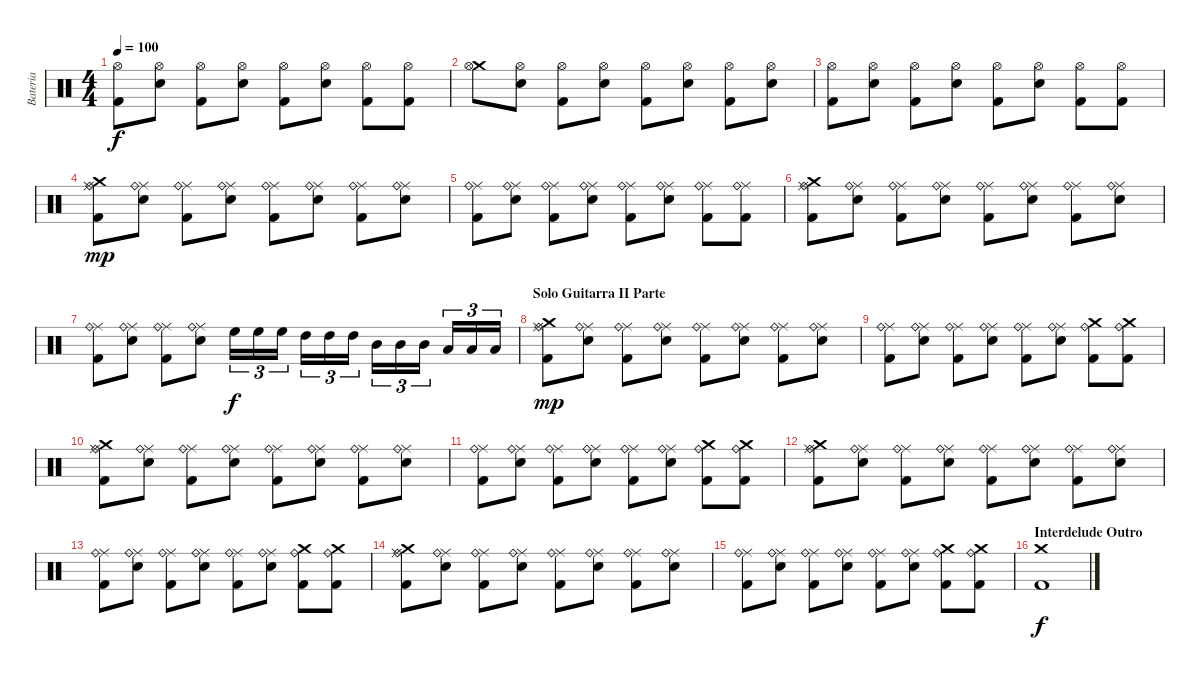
\track ("Bateria" "Bateria") {instrument percussion}
\staff {score}
\articulation defaults
\ts (4 4)
\tempo 100
\clef neutral
\ks c
("Kick (hit) 2" "Hi-Hat (open)").8{dy f} ("Hi-Hat (open)" "Snare (hit) 2").8 ("Hi-Hat (open)" "Kick (hit) 2").8 ("Hi-Hat (open)" "Snare (hit) 2").8 ("Hi-Hat (open)" "Kick (hit) 2").8 ("Hi-Hat (open)" "Snare (hit) 2").8 ("Hi-Hat (open)" "Kick (hit) 2").8 ("Hi-Hat (open)" "Kick (hit) 2").8 |
("Crash medium (hit)" "Hi-Hat (open)").8 ("Hi-Hat (open)" "Snare (hit) 2").8 ("Hi-Hat (open)" "Kick (hit) 2").8 ("Hi-Hat (open)" "Snare (hit) 2").8 ("Hi-Hat (open)" "Kick (hit) 2").8 ("Hi-Hat (open)" "Snare (hit) 2").8 ("Hi-Hat (open)" "Kick (hit) 2").8 ("Hi-Hat (open)" "Snare (hit) 2").8 |
("Kick (hit) 2" "Hi-Hat (open)").8 ("Hi-Hat (open)" "Snare (hit) 2").8 ("Hi-Hat (open)" "Kick (hit) 2").8 ("Hi-Hat (open)" "Snare (hit) 2").8 ("Hi-Hat (open)" "Kick (hit) 2").8 ("Hi-Hat (open)" "Snare (hit) 2").8 ("Hi-Hat (open)" "Kick (hit) 2").8 ("Hi-Hat (open)" "Kick (hit) 2").8 |
("Crash medium (hit)" "Ride (middle)" "Kick (hit) 2" "Ride (bell)").8{dy mp} ("Ride (middle)" "Snare (hit) 2" "Ride (bell)").8 ("Ride (middle)" "Kick (hit) 2" "Ride (bell)").8 ("Ride (middle)" "Snare (hit) 2" "Ride (bell)").8 ("Ride (middle)" "Kick (hit) 2" "Ride (bell)").8 ("Ride (middle)" "Snare (hit) 2" "Ride (bell)").8 ("Ride (middle)" "Kick (hit) 2" "Ride (bell)").8 ("Ride (middle)" "Snare (hit) 2" "Ride (bell)").8 |
("Ride (middle)" "Kick (hit) 2" "Ride (bell)").8 ("Ride (middle)" "Snare (hit) 2" "Ride (bell)").8 ("Ride (middle)" "Kick (hit) 2" "Ride (bell)").8 ("Ride (middle)" "Snare (hit) 2" "Ride (bell)").8 ("Ride (middle)" "Kick (hit) 2" "Ride (bell)").8 ("Ride (middle)" "Snare (hit) 2" "Ride (bell)").8 ("Ride (middle)" "Kick (hit) 2" "Ride (bell)").8 ("Ride (middle)" "Kick (hit) 2" "Ride (bell)").8 |
("Crash medium (hit)" "Ride (middle)" "Kick (hit) 2" "Ride (bell)").8 ("Ride (middle)" "Snare (hit) 2" "Ride (bell)").8 ("Ride (middle)" "Kick (hit) 2" "Ride (bell)").8 ("Ride (middle)" "Snare (hit) 2" "Ride (bell)").8 ("Ride (middle)" "Kick (hit) 2" "Ride (bell)").8 ("Ride (middle)" "Snare (hit) 2" "Ride (bell)").8 ("Ride (middle)" "Kick (hit) 2" "Ride (bell)").8 ("Ride (middle)" "Snare (hit) 2" "Ride (bell)").8 |
("Ride (middle)" "Kick (hit) 2" "Ride (bell)").8 ("Ride (middle)" "Snare (hit) 2" "Ride (bell)").8 ("Ride (middle)" "Kick (hit) 2" "Ride (bell)").8 ("Ride (middle)" "Snare (hit) 2" "Ride (bell)").8 "High Floor Tom (hit)".16{tu (3 2) dy f} "High Floor Tom (hit)".16{tu (3 2)} "High Floor Tom (hit)".16{tu (3 2)} "High Tom (hit)".16{tu (3 2)} "High Tom (hit)".16{tu (3 2)} "High Tom (hit)".16{tu (3 2)} "Mid Tom (hit)".16{tu (3 2)} "Mid Tom (hit)".16{tu (3 2)} "Mid Tom (hit)".16{tu (3 2)} "Low Tom (hit)".16{tu (3 2)} "Low Tom (hit)".16{tu (3 2)} "Low Tom (hit)".16{tu (3 2)} |
\section ("" "Solo Guitarra II Parte")
("Crash medium (hit)" "Ride (middle)" "Kick (hit) 2" "Ride (bell)").8{dy mp} ("Ride (middle)" "Snare (hit) 2" "Ride (bell)").8 ("Ride (middle)" "Kick (hit) 2" "Ride (bell)").8 ("Ride (middle)" "Snare (hit) 2" "Ride (bell)").8 ("Ride (middle)" "Kick (hit) 2" "Ride (bell)").8 ("Ride (middle)" "Snare (hit) 2" "Ride (bell)").8 ("Ride (middle)" "Kick (hit) 2" "Ride (bell)").8 ("Ride (middle)" "Snare (hit) 2" "Ride (bell)").8 |
("Ride (middle)" "Kick (hit) 2" "Ride (bell)").8 ("Ride (middle)" "Snare (hit) 2" "Ride (bell)").8 ("Ride (middle)" "Kick (hit) 2" "Ride (bell)").8 ("Ride (middle)" "Snare (hit) 2" "Ride (bell)").8 ("Ride (middle)" "Kick (hit) 2" "Ride (bell)").8 ("Ride (middle)" "Snare (hit) 2" "Ride (bell)").8 ("Crash medium (hit)" "Kick (hit) 2" "Ride (bell)").8 ("Crash medium (hit)" "Kick (hit) 2" "Ride (bell)").8 |
("Crash medium (hit)" "Ride (middle)" "Kick (hit) 2" "Ride (bell)").8 ("Ride (middle)" "Snare (hit) 2" "Ride (bell)").8 ("Ride (middle)" "Kick (hit) 2" "Ride (bell)").8 ("Ride (middle)" "Snare (hit) 2" "Ride (bell)").8 ("Ride (middle)" "Kick (hit) 2" "Ride (bell)").8 ("Ride (middle)" "Snare (hit) 2" "Ride (bell)").8 ("Ride (middle)" "Kick (hit) 2" "Ride (bell)").8 ("Ride (middle)" "Snare (hit) 2" "Ride (bell)").8 |
("Ride (middle)" "Kick (hit) 2" "Ride (bell)").8 ("Ride (middle)" "Snare (hit) 2" "Ride (bell)").8 ("Ride (middle)" "Kick (hit) 2" "Ride (bell)").8 ("Ride (middle)" "Snare (hit) 2" "Ride (bell)").8 ("Ride (middle)" "Kick (hit) 2" "Ride (bell)").8 ("Ride (middle)" "Snare (hit) 2" "Ride (bell)").8 ("Crash medium (hit)" "Kick (hit) 2" "Ride (bell)").8 ("Crash medium (hit)" "Kick (hit) 2" "Ride (bell)").8 |
("Crash medium (hit)" "Ride (middle)" "Kick (hit) 2" "Ride (bell)").8 ("Ride (middle)" "Snare (hit) 2" "Ride (bell)").8 ("Ride (middle)" "Kick (hit) 2" "Ride (bell)").8 ("Ride (middle)" "Snare (hit) 2" "Ride (bell)").8 ("Ride (middle)" "Kick (hit) 2" "Ride (bell)").8 ("Ride (middle)" "Snare (hit) 2" "Ride (bell)").8 ("Ride (middle)" "Kick (hit) 2" "Ride (bell)").8 ("Ride (middle)" "Snare (hit) 2" "Ride (bell)").8 |
("Ride (middle)" "Kick (hit) 2" "Ride (bell)").8 ("Ride (middle)" "Snare (hit) 2" "Ride (bell)").8 ("Ride (middle)" "Kick (hit) 2" "Ride (bell)").8 ("Ride (middle)" "Snare (hit) 2" "Ride (bell)").8 ("Ride (middle)" "Kick (hit) 2" "Ride (bell)").8 ("Ride (middle)" "Snare (hit) 2" "Ride (bell)").8 ("Crash medium (hit)" "Kick (hit) 2" "Ride (bell)").8 ("Crash medium (hit)" "Kick (hit) 2" "Ride (bell)").8 |
("Crash medium (hit)" "Ride (middle)" "Kick (hit) 2" "Ride (bell)").8 ("Ride (middle)" "Snare (hit) 2" "Ride (bell)").8 ("Ride (middle)" "Kick (hit) 2" "Ride (bell)").8 ("Ride (middle)" "Snare (hit) 2" "Ride (bell)").8 ("Ride (middle)" "Kick (hit) 2" "Ride (bell)").8 ("Ride (middle)" "Snare (hit) 2" "Ride (bell)").8 ("Ride (middle)" "Kick (hit) 2" "Ride (bell)").8 ("Ride (middle)" "Snare (hit) 2" "Ride (bell)").8 |
("Ride (middle)" "Kick (hit) 2" "Ride (bell)").8 ("Ride (middle)" "Snare (hit) 2" "Ride (bell)").8 ("Ride (middle)" "Kick (hit) 2" "Ride (bell)").8 ("Ride (middle)" "Snare (hit) 2" "Ride (bell)").8 ("Ride (middle)" "Kick (hit) 2" "Ride (bell)").8 ("Ride (middle)" "Snare (hit) 2" "Ride (bell)").8 ("Crash medium (hit)" "Kick (hit) 2" "Ride (bell)").8 ("Crash medium (hit)" "Kick (hit) 2" "Ride (bell)").8 |
\section ("" "Interdelude Outro")
("Kick (hit) 2" "Crash medium (hit)").1{dy f}
